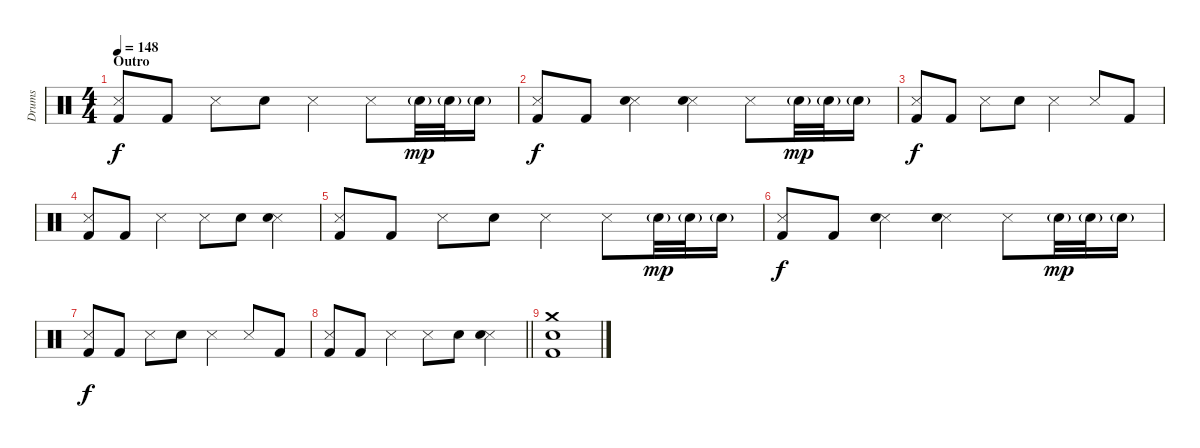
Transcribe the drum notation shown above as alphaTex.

\track ("Drums" "Drums") {instrument percussion}
\staff {score}
\articulation defaults
\ts (4 4)
\section ("" "Outro")
\tempo 148
\clef neutral
\ks c
("Snare (side stick) 3" "Kick (hit) 2").8{dy f} "Kick (hit) 2".8 "Snare (side stick) 3".8 "Electric Snare (hit)".8 "Snare (side stick) 3".4 "Snare (side stick) 3".8 "Electric Snare (hit)"{g}.32{dy mp} "Electric Snare (hit)"{g}.32 "Electric Snare (hit)"{g}.16 |
("Snare (side stick) 3" "Kick (hit) 2").8{dy f} "Kick (hit) 2".8 ("Snare (side stick) 3" "Electric Snare (hit)").4 ("Snare (side stick) 3" "Electric Snare (hit)").4 "Snare (side stick) 3".8 "Electric Snare (hit)"{g}.32{dy mp} "Electric Snare (hit)"{g}.32 "Electric Snare (hit)"{g}.16 |
("Snare (side stick) 3" "Kick (hit) 2").8{dy f} "Kick (hit) 2".8 "Snare (side stick) 3".8 "Electric Snare (hit)".8 "Snare (side stick) 3".4 "Snare (side stick) 3".8 "Kick (hit) 2".8 |
("Snare (side stick) 3" "Kick (hit) 2").8 "Kick (hit) 2".8 "Snare (side stick) 3".4 "Snare (side stick) 3".8 "Electric Snare (hit)".8 ("Snare (side stick) 3" "Electric Snare (hit)").4 |
("Snare (side stick) 3" "Kick (hit) 2").8 "Kick (hit) 2".8 "Snare (side stick) 3".8 "Electric Snare (hit)".8 "Snare (side stick) 3".4 "Snare (side stick) 3".8 "Electric Snare (hit)"{g}.32{dy mp} "Electric Snare (hit)"{g}.32 "Electric Snare (hit)"{g}.16 |
("Snare (side stick) 3" "Kick (hit) 2").8{dy f} "Kick (hit) 2".8 ("Snare (side stick) 3" "Electric Snare (hit)").4 ("Snare (side stick) 3" "Electric Snare (hit)").4 "Snare (side stick) 3".8 "Electric Snare (hit)"{g}.32{dy mp} "Electric Snare (hit)"{g}.32 "Electric Snare (hit)"{g}.16 |
("Snare (side stick) 3" "Kick (hit) 2").8{dy f} "Kick (hit) 2".8 "Snare (side stick) 3".8 "Electric Snare (hit)".8 "Snare (side stick) 3".4 "Snare (side stick) 3".8 "Kick (hit) 2".8 |
\barLineRight lightlight
("Snare (side stick) 3" "Kick (hit) 2").8 "Kick (hit) 2".8 "Snare (side stick) 3".4 "Snare (side stick) 3".8 "Electric Snare (hit)".8 ("Snare (side stick) 3" "Electric Snare (hit)").4 |
("Crash medium (hit)" "Electric Snare (hit)" "Kick (hit) 2").1
